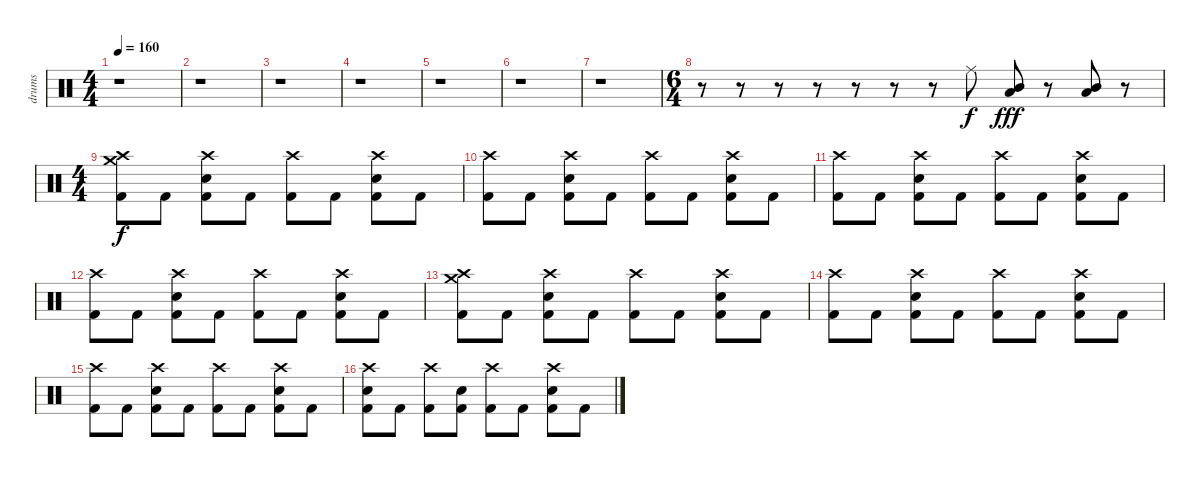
\track ("drums" "drums") {instrument percussion}
\staff {score}
\articulation defaults
\ts (4 4)
\tempo 160
\clef neutral
\ks c
r.1{dy f} |
r.1 |
r.1 |
r.1 |
r.1 |
r.1 |
r.1 |
\ts (6 4)
r.8 r.8 r.8 r.8 r.8 r.8 r.8 "Ride (middle)".8 ("Mid Tom (hit)" "Low Tom (hit)").8{dy fff} r.8 ("Mid Tom (hit)" "Low Tom (hit)").8 r.8 |
\ts (4 4)
("Crash high (hit)" "Crash medium (hit)" "Kick (hit) 2").8{dy f} "Kick (hit) 2".8 ("Crash high (hit)" "Electric Snare (hit)" "Kick (hit) 2").8 "Kick (hit) 2".8 ("Crash high (hit)" "Kick (hit) 2").8 "Kick (hit) 2".8 ("Crash high (hit)" "Electric Snare (hit)" "Kick (hit) 2").8 "Kick (hit) 2".8 |
("Crash high (hit)" "Kick (hit) 2").8 "Kick (hit) 2".8 ("Crash high (hit)" "Electric Snare (hit)" "Kick (hit) 2").8 "Kick (hit) 2".8 ("Crash high (hit)" "Kick (hit) 2").8 "Kick (hit) 2".8 ("Crash high (hit)" "Electric Snare (hit)" "Kick (hit) 2").8 "Kick (hit) 2".8 |
("Crash high (hit)" "Kick (hit) 2").8 "Kick (hit) 2".8 ("Crash high (hit)" "Electric Snare (hit)" "Kick (hit) 2").8 "Kick (hit) 2".8 ("Crash high (hit)" "Kick (hit) 2").8 "Kick (hit) 2".8 ("Crash high (hit)" "Electric Snare (hit)" "Kick (hit) 2").8 "Kick (hit) 2".8 |
("Crash high (hit)" "Kick (hit) 2").8 "Kick (hit) 2".8 ("Crash high (hit)" "Electric Snare (hit)" "Kick (hit) 2").8 "Kick (hit) 2".8 ("Crash high (hit)" "Kick (hit) 2").8 "Kick (hit) 2".8 ("Crash high (hit)" "Electric Snare (hit)" "Kick (hit) 2").8 "Kick (hit) 2".8 |
("Crash high (hit)" "Crash medium (hit)" "Kick (hit) 2").8 "Kick (hit) 2".8 ("Crash high (hit)" "Electric Snare (hit)" "Kick (hit) 2").8 "Kick (hit) 2".8 ("Crash high (hit)" "Kick (hit) 2").8 "Kick (hit) 2".8 ("Crash high (hit)" "Electric Snare (hit)" "Kick (hit) 2").8 "Kick (hit) 2".8 |
("Crash high (hit)" "Kick (hit) 2").8 "Kick (hit) 2".8 ("Crash high (hit)" "Electric Snare (hit)" "Kick (hit) 2").8 "Kick (hit) 2".8 ("Crash high (hit)" "Kick (hit) 2").8 "Kick (hit) 2".8 ("Crash high (hit)" "Electric Snare (hit)" "Kick (hit) 2").8 "Kick (hit) 2".8 |
("Crash high (hit)" "Kick (hit) 2").8 "Kick (hit) 2".8 ("Crash high (hit)" "Electric Snare (hit)" "Kick (hit) 2").8 "Kick (hit) 2".8 ("Crash high (hit)" "Kick (hit) 2").8 "Kick (hit) 2".8 ("Crash high (hit)" "Electric Snare (hit)" "Kick (hit) 2").8 "Kick (hit) 2".8 |
("Crash high (hit)" "Electric Snare (hit)" "Kick (hit) 2").8 "Kick (hit) 2".8 ("Crash high (hit)" "Kick (hit) 2").8 ("Electric Snare (hit)" "Kick (hit) 2").8 ("Crash high (hit)" "Kick (hit) 2").8 "Kick (hit) 2".8 ("Crash high (hit)" "Electric Snare (hit)" "Kick (hit) 2").8 "Kick (hit) 2".8
